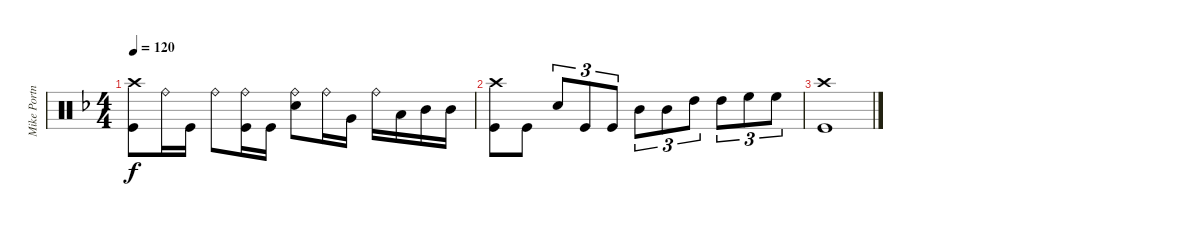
\track ("Mike Portnoy" "Mike Portn") {instrument percussion}
\staff {score}
\articulation defaults
\ts (4 4)
\tempo 120
\clef neutral
\ks dminor
("Crash high (hit)" "Kick (hit)").8{dy f} "Ride (bell)".16 "Kick (hit)".16 "Ride (bell)".8 ("Ride (bell)" "Kick (hit)").16 "Kick (hit)".16 ("Snare (hit) 2" "Ride (bell)").8 "Ride (bell)".16 "Very Low Tom (hit)".16 "Ride (bell)".16 "Low Tom (hit)".16 "Mid Tom (hit)".16 "Mid Tom (hit)".16 |
("Kick (hit)" "Crash high (hit)").8 "Kick (hit)".8 "Snare (hit) 2".8{tu (3 2)} "Kick (hit)".8{tu (3 2)} "Kick (hit)".8{tu (3 2)} "Mid Tom (hit)".8{tu (3 2)} "Mid Tom (hit)".8{tu (3 2)} "High Tom (hit)".8{tu (3 2)} "High Tom (hit)".8{tu (3 2)} "High Floor Tom (hit)".8{tu (3 2)} "High Floor Tom (hit)".8{tu (3 2)} |
("Crash high (hit)" "Kick (hit)").1
